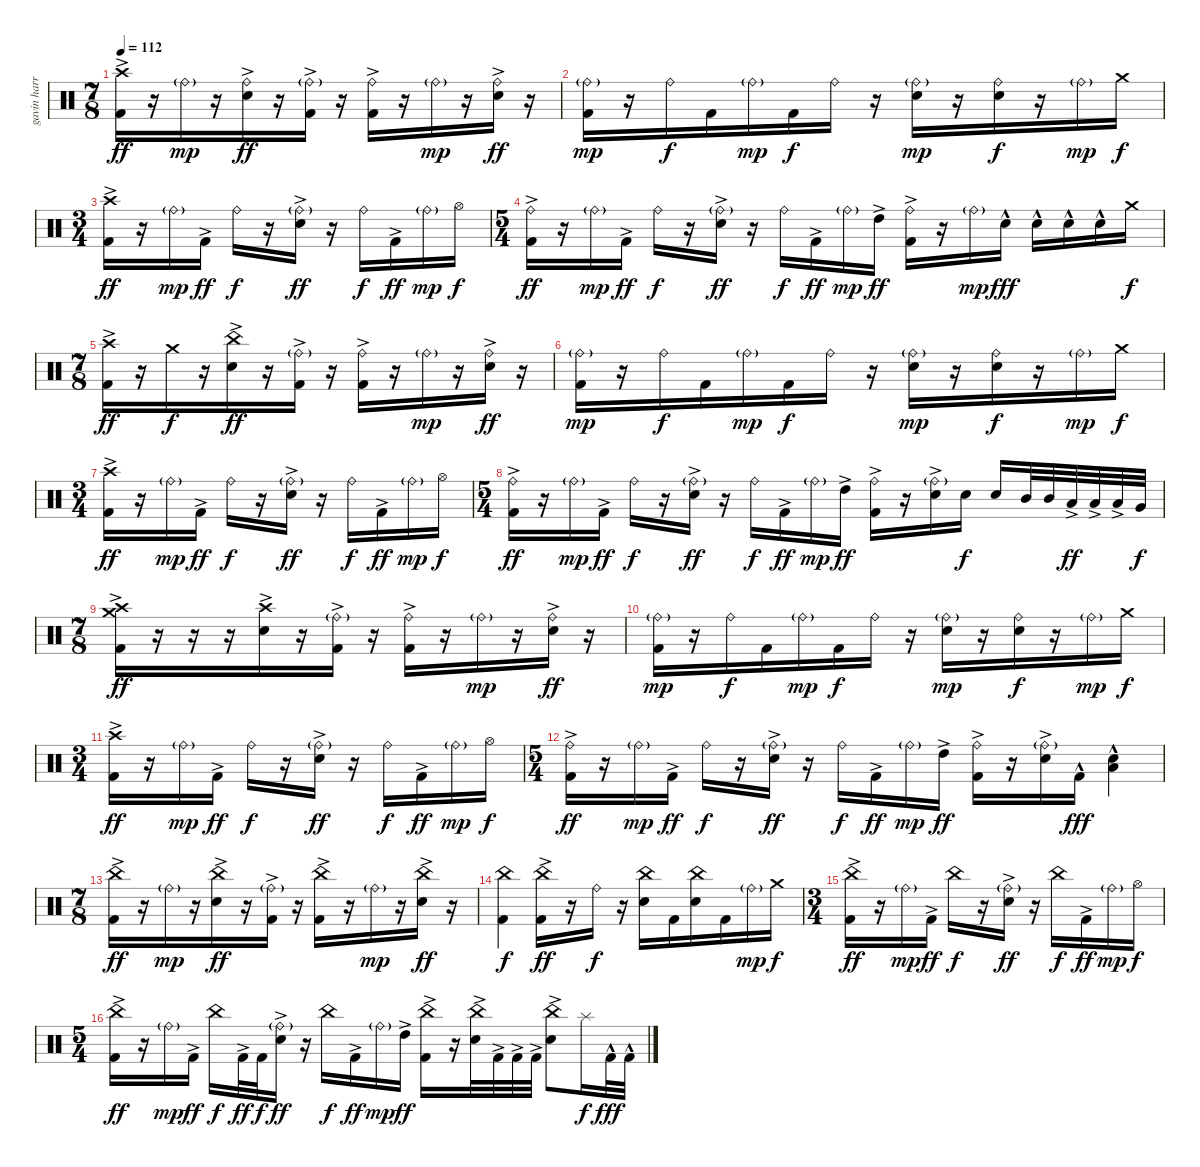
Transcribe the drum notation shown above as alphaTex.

\track ("gavin harrison" "gavin harr") {instrument percussion}
\staff {score}
\articulation defaults
\ts (7 8)
\tempo 112
\clef neutral
\ks c
("Crash high (hit)" "Kick (hit) 2"{ac}).16{dy ff} r.16 "Ride (bell)"{g}.16{dy mp} r.16 ("Ride (bell)" "Electric Snare (hit)"{ac}).16{dy ff} r.16 ("Ride (bell)"{g} "Kick (hit) 2"{ac}).16 r.16 ("Ride (bell)" "Kick (hit) 2"{ac}).16 r.16 "Ride (bell)"{g}.16{dy mp} r.16 ("Ride (bell)" "Electric Snare (hit)"{ac}).16{dy ff} r.16 |
("Ride (bell)"{g} "Kick (hit) 2").16{dy mp} r.16 "Ride (bell)".16{dy f} "Kick (hit) 2".16 "Ride (bell)"{g}.16{dy mp} "Kick (hit) 2".16{dy f} "Ride (bell)".16 r.16 ("Ride (bell)"{g} "Electric Snare (hit)").16{dy mp} r.16 ("Ride (bell)" "Electric Snare (hit)").16{dy f} r.16 "Ride (bell)"{g}.16{dy mp} "Crash medium (hit)".16{dy f} |
\ts (3 4)
("Crash high (hit)" "Kick (hit) 2"{ac}).16{dy ff} r.16 "Ride (bell)"{g}.16{dy mp} "Kick (hit) 2"{ac}.16{dy ff} "Ride (bell)".16{dy f} r.16 ("Ride (bell)"{g} "Electric Snare (hit)"{ac}).16{dy ff} r.16 "Ride (bell)".16{dy f} "Kick (hit) 2"{ac}.16{dy ff} "Ride (bell)"{g}.16{dy mp} "Hi-Hat (open)".16{dy f} |
\ts (5 4)
("Ride (bell)" "Kick (hit) 2"{ac}).16{dy ff} r.16 "Ride (bell)"{g}.16{dy mp} "Kick (hit) 2"{ac}.16{dy ff} "Ride (bell)".16{dy f} r.16 ("Ride (bell)"{g} "Electric Snare (hit)"{ac}).16{dy ff} r.16 "Ride (bell)".16{dy f} "Kick (hit) 2"{ac}.16{dy ff} "Ride (bell)"{g}.16{dy mp} "High Tom (hit)"{ac}.16{dy ff} ("Ride (bell)" "Kick (hit) 2"{ac}).16 r.16 "Ride (bell)"{g}.16{dy mp} "Electric Snare (hit)"{hac}.16{dy fff} "Electric Snare (hit)"{hac}.16 "Electric Snare (hit)"{hac}.16 "Electric Snare (hit)"{hac}.16 "Crash medium (hit)".16{dy f} |
\ts (7 8)
("Crash high (hit)" "Kick (hit) 2"{ac}).16{dy ff} r.16 "Crash medium (hit)".16{dy f} r.16 ("China (hit)" "Electric Snare (hit)"{ac}).16{dy ff} r.16 ("Ride (bell)"{g} "Kick (hit) 2"{ac}).16 r.16 ("Ride (bell)" "Kick (hit) 2"{ac}).16 r.16 "Ride (bell)"{g}.16{dy mp} r.16 ("Ride (bell)" "Electric Snare (hit)"{ac}).16{dy ff} r.16 |
("Ride (bell)"{g} "Kick (hit) 2").16{dy mp} r.16 "Ride (bell)".16{dy f} "Kick (hit) 2".16 "Ride (bell)"{g}.16{dy mp} "Kick (hit) 2".16{dy f} "Ride (bell)".16 r.16 ("Ride (bell)"{g} "Electric Snare (hit)").16{dy mp} r.16 ("Ride (bell)" "Electric Snare (hit)").16{dy f} r.16 "Ride (bell)"{g}.16{dy mp} "Crash medium (hit)".16{dy f} |
\ts (3 4)
("Crash high (hit)" "Kick (hit) 2"{ac}).16{dy ff} r.16 "Ride (bell)"{g}.16{dy mp} "Kick (hit) 2"{ac}.16{dy ff} "Ride (bell)".16{dy f} r.16 ("Ride (bell)"{g} "Electric Snare (hit)"{ac}).16{dy ff} r.16 "Ride (bell)".16{dy f} "Kick (hit) 2"{ac}.16{dy ff} "Ride (bell)"{g}.16{dy mp} "Hi-Hat (open)".16{dy f} |
\ts (5 4)
("Ride (bell)" "Kick (hit) 2"{ac}).16{dy ff} r.16 "Ride (bell)"{g}.16{dy mp} "Kick (hit) 2"{ac}.16{dy ff} "Ride (bell)".16{dy f} r.16 ("Ride (bell)"{g} "Electric Snare (hit)"{ac}).16{dy ff} r.16 "Ride (bell)".16{dy f} "Kick (hit) 2"{ac}.16{dy ff} "Ride (bell)"{g}.16{dy mp} "High Tom (hit)"{ac}.16{dy ff} ("Ride (bell)" "Kick (hit) 2"{ac}).16 r.16 ("Ride (bell)"{g} "Electric Snare (hit)"{ac}).16 "Electric Snare (hit)".16{dy f} "Electric Snare (hit)".16 "Mid Tom (hit)".32 "Mid Tom (hit)".32 "Low Tom (hit)"{ac}.32{dy ff} "Low Tom (hit)"{ac}.32 "Low Tom (hit)"{ac}.32 "Very Low Tom (hit)".32{dy f} |
\ts (7 8)
("Crash high (hit)" "Crash medium (hit)" "Kick (hit) 2"{ac}).16{dy ff} r.16 r.16 r.16 ("Crash high (hit)" "Electric Snare (hit)"{ac}).16 r.16 ("Ride (bell)"{g} "Kick (hit) 2"{ac}).16 r.16 ("Ride (bell)" "Kick (hit) 2"{ac}).16 r.16 "Ride (bell)"{g}.16{dy mp} r.16 ("Ride (bell)" "Electric Snare (hit)"{ac}).16{dy ff} r.16 |
("Ride (bell)"{g} "Kick (hit) 2").16{dy mp} r.16 "Ride (bell)".16{dy f} "Kick (hit) 2".16 "Ride (bell)"{g}.16{dy mp} "Kick (hit) 2".16{dy f} "Ride (bell)".16 r.16 ("Ride (bell)"{g} "Electric Snare (hit)").16{dy mp} r.16 ("Ride (bell)" "Electric Snare (hit)").16{dy f} r.16 "Ride (bell)"{g}.16{dy mp} "Crash medium (hit)".16{dy f} |
\ts (3 4)
("Crash high (hit)" "Kick (hit) 2"{ac}).16{dy ff} r.16 "Ride (bell)"{g}.16{dy mp} "Kick (hit) 2"{ac}.16{dy ff} "Ride (bell)".16{dy f} r.16 ("Ride (bell)"{g} "Electric Snare (hit)"{ac}).16{dy ff} r.16 "Ride (bell)".16{dy f} "Kick (hit) 2"{ac}.16{dy ff} "Ride (bell)"{g}.16{dy mp} "Hi-Hat (open)".16{dy f} |
\ts (5 4)
("Ride (bell)" "Kick (hit) 2"{ac}).16{dy ff} r.16 "Ride (bell)"{g}.16{dy mp} "Kick (hit) 2"{ac}.16{dy ff} "Ride (bell)".16{dy f} r.16 ("Ride (bell)"{g} "Electric Snare (hit)"{ac}).16{dy ff} r.16 "Ride (bell)".16{dy f} "Kick (hit) 2"{ac}.16{dy ff} "Ride (bell)"{g}.16{dy mp} "High Tom (hit)"{ac}.16{dy ff} ("Ride (bell)" "Kick (hit) 2"{ac}).16 r.16 ("Ride (bell)"{g} "Electric Snare (hit)"{ac}).16 "Kick (hit) 2"{hac}.16{dy fff} ("Electric Snare (hit)"{hac} "Low Floor Tom (hit)"{hac}).4 |
\ts (7 8)
("China (hit)" "Kick (hit) 2"{ac}).16{dy ff} r.16 "Ride (bell)"{g}.16{dy mp} r.16 ("China (hit)" "Electric Snare (hit)"{ac}).16{dy ff} r.16 ("Ride (bell)"{g} "Kick (hit) 2"{ac}).16 r.16 ("China (hit)" "Kick (hit) 2"{ac}).16 r.16 "Ride (bell)"{g}.16{dy mp} r.16 ("China (hit)" "Electric Snare (hit)"{ac}).16{dy ff} r.16 |
("China (hit)" "Kick (hit) 2").4{dy f} ("China (hit)" "Kick (hit) 2"{ac}).16{dy ff} r.16 "Ride (bell)".16{dy f} r.16 ("China (hit)" "Electric Snare (hit)").16 "Kick (hit) 2".16 ("China (hit)" "Electric Snare (hit)").16 "Kick (hit) 2".16 "Ride (bell)"{g}.16{dy mp} "Crash medium (hit)".16{dy f} |
\ts (3 4)
("China (hit)" "Kick (hit) 2"{ac}).16{dy ff} r.16 "Ride (bell)"{g}.16{dy mp} "Kick (hit) 2"{ac}.16{dy ff} "China (hit)".16{dy f} r.16 ("Ride (bell)"{g} "Electric Snare (hit)"{ac}).16{dy ff} r.16 "China (hit)".16{dy f} "Kick (hit) 2"{ac}.16{dy ff} "Ride (bell)"{g}.16{dy mp} "Hi-Hat (open)".16{dy f} |
\ts (5 4)
("China (hit)" "Kick (hit) 2"{ac}).16{dy ff} r.16 "Ride (bell)"{g}.16{dy mp} "Kick (hit) 2"{ac}.16{dy ff} "China (hit)".16{dy f} "Kick (hit) 2"{ac}.32{dy ff} "Kick (hit) 2".32{dy f} ("Ride (bell)"{g} "Electric Snare (hit)"{ac}).16{dy ff} r.16 "China (hit)".16{dy f} "Kick (hit) 2"{ac}.16{dy ff} "Ride (bell)"{g}.16{dy mp} "High Tom (hit)"{ac}.16{dy ff} ("China (hit)" "Kick (hit) 2"{ac}).16 r.16 ("China (hit)" "Electric Snare (hit)"{ac}).32 "Kick (hit) 2"{ac}.32 "Kick (hit) 2"{ac}.32 "Kick (hit) 2"{ac}.32 ("China (hit)" "Electric Snare (hit)"{ac}).8 "Splash (hit)".16{dy f} "Kick (hit) 2"{hac}.32{dy fff} "Kick (hit) 2"{hac}.32
